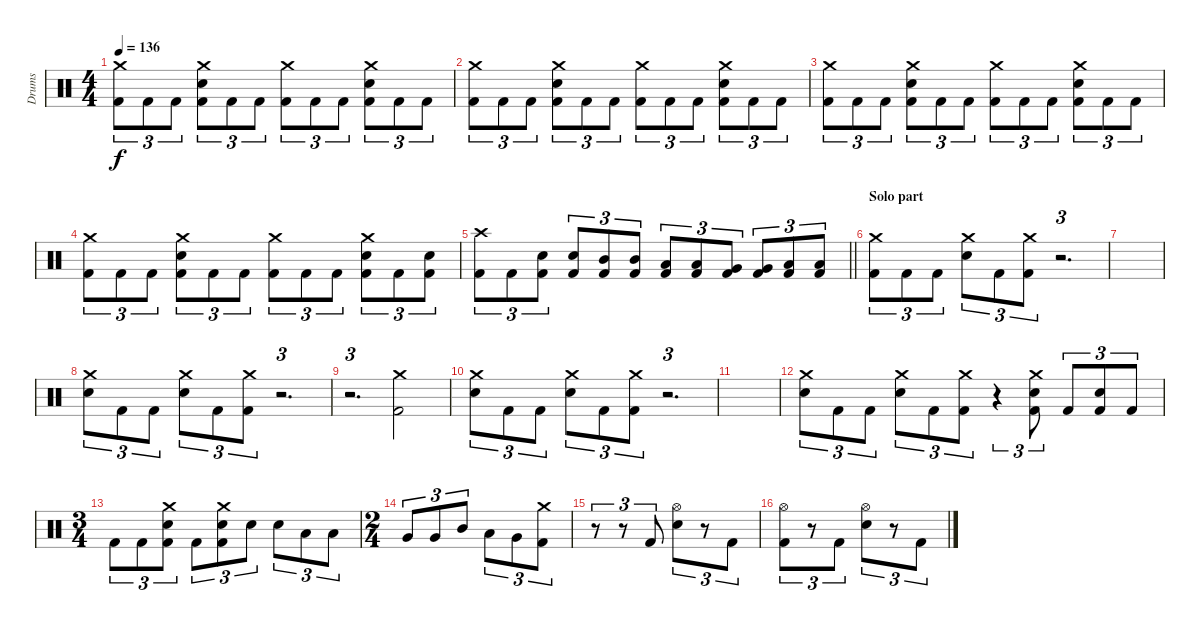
\track ("Drums" "Drums") {instrument percussion}
\staff {score}
\articulation defaults
\ts (4 4)
\tempo 136
\clef neutral
\ks c
("Crash medium (hit)" "Kick (hit) 2").8{tu (3 2) dy f} "Kick (hit) 2".8{tu (3 2)} "Kick (hit) 2".8{tu (3 2)} ("Crash medium (hit)" "Electric Snare (hit)" "Kick (hit) 2").8{tu (3 2)} "Kick (hit) 2".8{tu (3 2)} "Kick (hit) 2".8{tu (3 2)} ("Crash medium (hit)" "Kick (hit) 2").8{tu (3 2)} "Kick (hit) 2".8{tu (3 2)} "Kick (hit) 2".8{tu (3 2)} ("Crash medium (hit)" "Electric Snare (hit)" "Kick (hit) 2").8{tu (3 2)} "Kick (hit) 2".8{tu (3 2)} "Kick (hit) 2".8{tu (3 2)} |
("Crash medium (hit)" "Kick (hit) 2").8{tu (3 2)} "Kick (hit) 2".8{tu (3 2)} "Kick (hit) 2".8{tu (3 2)} ("Crash medium (hit)" "Electric Snare (hit)" "Kick (hit) 2").8{tu (3 2)} "Kick (hit) 2".8{tu (3 2)} "Kick (hit) 2".8{tu (3 2)} ("Crash medium (hit)" "Kick (hit) 2").8{tu (3 2)} "Kick (hit) 2".8{tu (3 2)} "Kick (hit) 2".8{tu (3 2)} ("Crash medium (hit)" "Electric Snare (hit)" "Kick (hit) 2").8{tu (3 2)} "Kick (hit) 2".8{tu (3 2)} "Kick (hit) 2".8{tu (3 2)} |
("Crash medium (hit)" "Kick (hit) 2").8{tu (3 2)} "Kick (hit) 2".8{tu (3 2)} "Kick (hit) 2".8{tu (3 2)} ("Crash medium (hit)" "Electric Snare (hit)" "Kick (hit) 2").8{tu (3 2)} "Kick (hit) 2".8{tu (3 2)} "Kick (hit) 2".8{tu (3 2)} ("Crash medium (hit)" "Kick (hit) 2").8{tu (3 2)} "Kick (hit) 2".8{tu (3 2)} "Kick (hit) 2".8{tu (3 2)} ("Crash medium (hit)" "Electric Snare (hit)" "Kick (hit) 2").8{tu (3 2)} "Kick (hit) 2".8{tu (3 2)} "Kick (hit) 2".8{tu (3 2)} |
("Crash medium (hit)" "Kick (hit) 2").8{tu (3 2)} "Kick (hit) 2".8{tu (3 2)} "Kick (hit) 2".8{tu (3 2)} ("Crash medium (hit)" "Electric Snare (hit)" "Kick (hit) 2").8{tu (3 2)} "Kick (hit) 2".8{tu (3 2)} "Kick (hit) 2".8{tu (3 2)} ("Crash medium (hit)" "Kick (hit) 2").8{tu (3 2)} "Kick (hit) 2".8{tu (3 2)} "Kick (hit) 2".8{tu (3 2)} ("Crash medium (hit)" "Electric Snare (hit)" "Kick (hit) 2").8{tu (3 2)} "Kick (hit) 2".8{tu (3 2)} ("Electric Snare (hit)" "Kick (hit) 2").8{tu (3 2)} |
\barLineRight lightlight
("Crash high (hit)" "Kick (hit) 2").8{tu (3 2)} "Kick (hit) 2".8{tu (3 2)} ("Electric Snare (hit)" "Kick (hit) 2").8{tu (3 2)} ("Electric Snare (hit)" "Kick (hit) 2").8{tu (3 2)} ("Mid Tom (hit)" "Kick (hit) 2").8{tu (3 2)} ("Mid Tom (hit)" "Kick (hit) 2").8{tu (3 2)} ("Low Tom (hit)" "Kick (hit) 2").8{tu (3 2)} ("Low Tom (hit)" "Kick (hit) 2").8{tu (3 2)} ("Very Low Tom (hit)" "Kick (hit) 2").8{tu (3 2)} ("Very Low Tom (hit)" "Kick (hit) 2").8{tu (3 2)} ("Low Floor Tom (hit)" "Kick (hit) 2").8{tu (3 2)} ("Low Floor Tom (hit)" "Kick (hit) 2").8{tu (3 2)} |
\section ("" "Solo part")
("Crash medium (hit)" "Kick (hit) 2").8{tu (3 2)} "Kick (hit) 2".8{tu (3 2)} "Kick (hit) 2".8{tu (3 2)} ("Crash medium (hit)" "Electric Snare (hit)").8{tu (3 2)} "Kick (hit) 2".8{tu (3 2)} ("Crash medium (hit)" "Kick (hit) 2").8{tu (3 2)} r.2{d tu (3 2)} |
|
("Crash medium (hit)" "Electric Snare (hit)").8{tu (3 2)} "Kick (hit) 2".8{tu (3 2)} "Kick (hit) 2".8{tu (3 2)} ("Crash medium (hit)" "Electric Snare (hit)").8{tu (3 2)} "Kick (hit) 2".8{tu (3 2)} ("Crash medium (hit)" "Kick (hit) 2").8{tu (3 2)} r.2{d tu (3 2)} |
r.2{d tu (3 2)} ("Crash medium (hit)" "Kick (hit) 2").2 |
("Crash medium (hit)" "Electric Snare (hit)").8{tu (3 2)} "Kick (hit) 2".8{tu (3 2)} "Kick (hit) 2".8{tu (3 2)} ("Crash medium (hit)" "Electric Snare (hit)").8{tu (3 2)} "Kick (hit) 2".8{tu (3 2)} ("Crash medium (hit)" "Kick (hit) 2").8{tu (3 2)} r.2{d tu (3 2)} |
|
("Crash medium (hit)" "Electric Snare (hit)").8{tu (3 2)} "Kick (hit) 2".8{tu (3 2)} "Kick (hit) 2".8{tu (3 2)} ("Crash medium (hit)" "Electric Snare (hit)").8{tu (3 2)} "Kick (hit) 2".8{tu (3 2)} ("Crash medium (hit)" "Kick (hit) 2").8{tu (3 2)} r.4{tu (3 2)} ("Crash medium (hit)" "Electric Snare (hit)" "Kick (hit) 2").8{tu (3 2)} "Kick (hit) 2".8{tu (3 2)} ("Electric Snare (hit)" "Kick (hit) 2").8{tu (3 2)} "Kick (hit) 2".8{tu (3 2)} |
\ts (3 4)
"Kick (hit) 2".8{tu (3 2)} "Kick (hit) 2".8{tu (3 2)} ("Crash medium (hit)" "Electric Snare (hit)" "Kick (hit) 2").8{tu (3 2)} "Kick (hit) 2".8{tu (3 2)} ("Crash medium (hit)" "Electric Snare (hit)" "Kick (hit) 2").8{tu (3 2)} "Electric Snare (hit)".8{tu (3 2)} "Electric Snare (hit)".8{tu (3 2)} "Low Tom (hit)".8{tu (3 2)} "Low Tom (hit)".8{tu (3 2)} |
\ts (2 4)
"Very Low Tom (hit)".8{tu (3 2)} "Very Low Tom (hit)".8{tu (3 2)} "Mid Tom (hit)".8{tu (3 2)} "Low Tom (hit)".8{tu (3 2)} "Very Low Tom (hit)".8{tu (3 2)} ("Crash medium (hit)" "Kick (hit) 2").8{tu (3 2)} |
r.8{tu (3 2)} r.8{tu (3 2)} "Kick (hit) 2".8{tu (3 2)} ("Hi-Hat (open)" "Electric Snare (hit)").8{tu (3 2)} r.8{tu (3 2)} "Kick (hit) 2".8{tu (3 2)} |
("Hi-Hat (open)" "Kick (hit) 2").8{tu (3 2)} r.8{tu (3 2)} "Kick (hit) 2".8{tu (3 2)} ("Hi-Hat (open)" "Electric Snare (hit)").8{tu (3 2)} r.8{tu (3 2)} "Kick (hit) 2".8{tu (3 2)}
